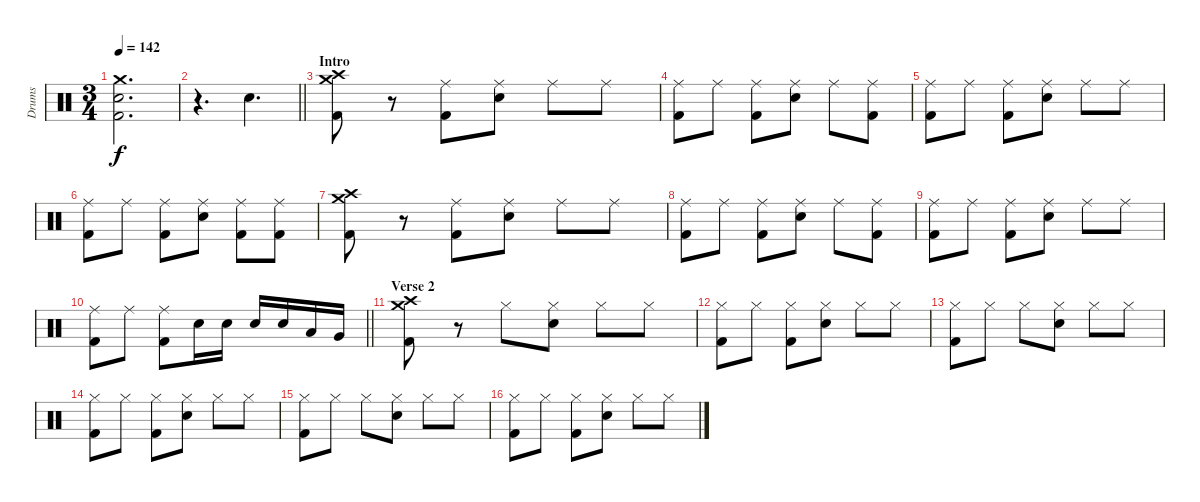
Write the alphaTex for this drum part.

\track ("Drums" "Drums") {instrument percussion}
\staff {score}
\articulation defaults
\ts (3 4)
\tempo 142
\clef neutral
\ks c
("Crash medium (hit)" "Electric Snare (hit)" "Kick (hit) 2").2{d dy f} |
\barLineRight lightlight
r.4{d} "Electric Snare (hit)".4{d} |
\section ("" "Intro")
("Crash medium (hit)" "Crash high (hit)" "Kick (hit) 2").8 r.8 ("Ride (middle)" "Kick (hit) 2").8 ("Ride (middle)" "Electric Snare (hit)").8 "Ride (middle)".8 "Ride (middle)".8 |
("Ride (middle)" "Kick (hit) 2").8 "Ride (middle)".8 ("Ride (middle)" "Kick (hit) 2").8 ("Ride (middle)" "Electric Snare (hit)").8 "Ride (middle)".8 ("Ride (middle)" "Kick (hit) 2").8 |
("Ride (middle)" "Kick (hit) 2").8 "Ride (middle)".8 ("Ride (middle)" "Kick (hit) 2").8 ("Ride (middle)" "Electric Snare (hit)").8 "Ride (middle)".8 "Ride (middle)".8 |
("Ride (middle)" "Kick (hit) 2").8 "Ride (middle)".8 ("Ride (middle)" "Kick (hit) 2").8 ("Ride (middle)" "Electric Snare (hit)").8 ("Ride (middle)" "Kick (hit) 2").8 ("Ride (middle)" "Kick (hit) 2").8 |
("Crash medium (hit)" "Crash high (hit)" "Kick (hit) 2").8 r.8 ("Ride (middle)" "Kick (hit) 2").8 ("Ride (middle)" "Electric Snare (hit)").8 "Ride (middle)".8 "Ride (middle)".8 |
("Ride (middle)" "Kick (hit) 2").8 "Ride (middle)".8 ("Ride (middle)" "Kick (hit) 2").8 ("Ride (middle)" "Electric Snare (hit)").8 "Ride (middle)".8 ("Ride (middle)" "Kick (hit) 2").8 |
("Ride (middle)" "Kick (hit) 2").8 "Ride (middle)".8 ("Ride (middle)" "Kick (hit) 2").8 ("Ride (middle)" "Electric Snare (hit)").8 "Ride (middle)".8 "Ride (middle)".8 |
\barLineRight lightlight
("Ride (middle)" "Kick (hit) 2").8 "Ride (middle)".8 ("Ride (middle)" "Kick (hit) 2").8 "Electric Snare (hit)".16 "Electric Snare (hit)".16 "Electric Snare (hit)".16 "Electric Snare (hit)".16 "Low Tom (hit)".16 "Very Low Tom (hit)".16 |
\section ("" "Verse 2")
("Crash medium (hit)" "Crash high (hit)" "Kick (hit) 2").8 r.8 "Hi-Hat (closed)".8 ("Hi-Hat (closed)" "Electric Snare (hit)").8 "Hi-Hat (closed)".8 "Hi-Hat (closed)".8 |
("Hi-Hat (closed)" "Kick (hit) 2").8 "Hi-Hat (closed)".8 ("Hi-Hat (closed)" "Kick (hit) 2").8 ("Hi-Hat (closed)" "Electric Snare (hit)").8 "Hi-Hat (closed)".8 "Hi-Hat (closed)".8 |
("Hi-Hat (closed)" "Kick (hit) 2").8 "Hi-Hat (closed)".8 "Hi-Hat (closed)".8 ("Hi-Hat (closed)" "Electric Snare (hit)").8 "Hi-Hat (closed)".8 "Hi-Hat (closed)".8 |
("Hi-Hat (closed)" "Kick (hit) 2").8 "Hi-Hat (closed)".8 ("Hi-Hat (closed)" "Kick (hit) 2").8 ("Hi-Hat (closed)" "Electric Snare (hit)").8 "Hi-Hat (closed)".8 "Hi-Hat (closed)".8 |
("Hi-Hat (closed)" "Kick (hit) 2").8 "Hi-Hat (closed)".8 "Hi-Hat (closed)".8 ("Hi-Hat (closed)" "Electric Snare (hit)").8 "Hi-Hat (closed)".8 "Hi-Hat (closed)".8 |
("Hi-Hat (closed)" "Kick (hit) 2").8 "Hi-Hat (closed)".8 ("Hi-Hat (closed)" "Kick (hit) 2").8 ("Hi-Hat (closed)" "Electric Snare (hit)").8 "Hi-Hat (closed)".8 "Hi-Hat (closed)".8
